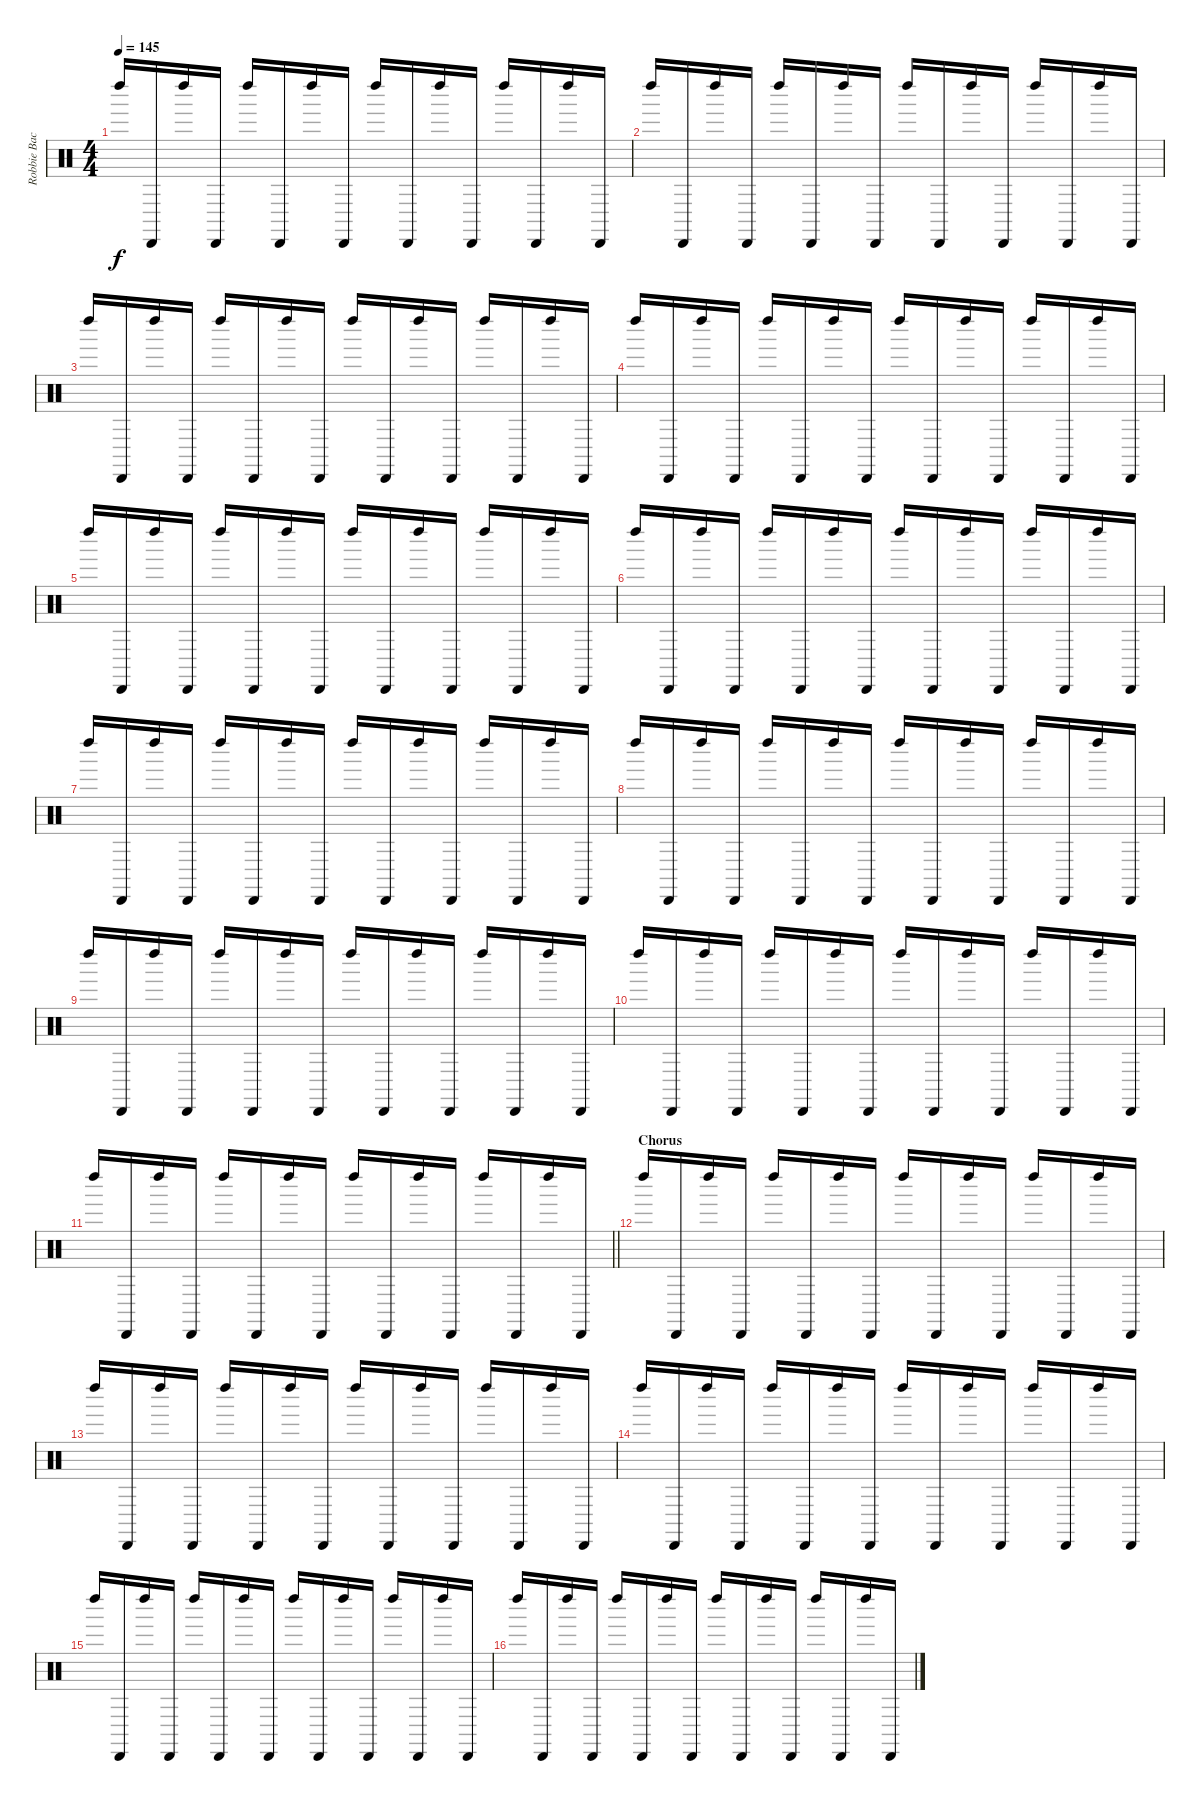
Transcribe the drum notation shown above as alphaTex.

\track ("Robbie Bachman 2" "Robbie Bac") {instrument percussion}
\staff {score}
\articulation defaults
\ts (4 4)
\tempo 145
\clef neutral
\ks c "Left Maraca (hit)".16{dy f} "Cabasa (hit)".16 "Left Maraca (hit)".16 "Cabasa (hit)".16 "Left Maraca (hit)".16 "Cabasa (hit)".16 "Left Maraca (hit)".16 "Cabasa (hit)".16 "Left Maraca (hit)".16 "Cabasa (hit)".16 "Left Maraca (hit)".16 "Cabasa (hit)".16 "Left Maraca (hit)".16 "Cabasa (hit)".16 "Left Maraca (hit)".16 "Cabasa (hit)".16
|
"Left Maraca (hit)".16 "Cabasa (hit)".16 "Left Maraca (hit)".16 "Cabasa (hit)".16 "Left Maraca (hit)".16 "Cabasa (hit)".16 "Left Maraca (hit)".16 "Cabasa (hit)".16 "Left Maraca (hit)".16 "Cabasa (hit)".16 "Left Maraca (hit)".16 "Cabasa (hit)".16 "Left Maraca (hit)".16 "Cabasa (hit)".16 "Left Maraca (hit)".16 "Cabasa (hit)".16 |
"Left Maraca (hit)".16 "Cabasa (hit)".16 "Left Maraca (hit)".16 "Cabasa (hit)".16 "Left Maraca (hit)".16 "Cabasa (hit)".16 "Left Maraca (hit)".16 "Cabasa (hit)".16 "Left Maraca (hit)".16 "Cabasa (hit)".16 "Left Maraca (hit)".16 "Cabasa (hit)".16 "Left Maraca (hit)".16 "Cabasa (hit)".16 "Left Maraca (hit)".16 "Cabasa (hit)".16 |
"Left Maraca (hit)".16 "Cabasa (hit)".16 "Left Maraca (hit)".16 "Cabasa (hit)".16 "Left Maraca (hit)".16 "Cabasa (hit)".16 "Left Maraca (hit)".16 "Cabasa (hit)".16 "Left Maraca (hit)".16 "Cabasa (hit)".16 "Left Maraca (hit)".16 "Cabasa (hit)".16 "Left Maraca (hit)".16 "Cabasa (hit)".16 "Left Maraca (hit)".16 "Cabasa (hit)".16 |
"Left Maraca (hit)".16 "Cabasa (hit)".16 "Left Maraca (hit)".16 "Cabasa (hit)".16 "Left Maraca (hit)".16 "Cabasa (hit)".16 "Left Maraca (hit)".16 "Cabasa (hit)".16 "Left Maraca (hit)".16 "Cabasa (hit)".16 "Left Maraca (hit)".16 "Cabasa (hit)".16 "Left Maraca (hit)".16 "Cabasa (hit)".16 "Left Maraca (hit)".16 "Cabasa (hit)".16 |
"Left Maraca (hit)".16 "Cabasa (hit)".16 "Left Maraca (hit)".16 "Cabasa (hit)".16 "Left Maraca (hit)".16 "Cabasa (hit)".16 "Left Maraca (hit)".16 "Cabasa (hit)".16 "Left Maraca (hit)".16 "Cabasa (hit)".16 "Left Maraca (hit)".16 "Cabasa (hit)".16 "Left Maraca (hit)".16 "Cabasa (hit)".16 "Left Maraca (hit)".16 "Cabasa (hit)".16 |
"Left Maraca (hit)".16 "Cabasa (hit)".16 "Left Maraca (hit)".16 "Cabasa (hit)".16 "Left Maraca (hit)".16 "Cabasa (hit)".16 "Left Maraca (hit)".16 "Cabasa (hit)".16 "Left Maraca (hit)".16 "Cabasa (hit)".16 "Left Maraca (hit)".16 "Cabasa (hit)".16 "Left Maraca (hit)".16 "Cabasa (hit)".16 "Left Maraca (hit)".16 "Cabasa (hit)".16 |
"Left Maraca (hit)".16 "Cabasa (hit)".16 "Left Maraca (hit)".16 "Cabasa (hit)".16 "Left Maraca (hit)".16 "Cabasa (hit)".16 "Left Maraca (hit)".16 "Cabasa (hit)".16 "Left Maraca (hit)".16 "Cabasa (hit)".16 "Left Maraca (hit)".16 "Cabasa (hit)".16 "Left Maraca (hit)".16 "Cabasa (hit)".16 "Left Maraca (hit)".16 "Cabasa (hit)".16 |
"Left Maraca (hit)".16 "Cabasa (hit)".16 "Left Maraca (hit)".16 "Cabasa (hit)".16 "Left Maraca (hit)".16 "Cabasa (hit)".16 "Left Maraca (hit)".16 "Cabasa (hit)".16 "Left Maraca (hit)".16 "Cabasa (hit)".16 "Left Maraca (hit)".16 "Cabasa (hit)".16 "Left Maraca (hit)".16 "Cabasa (hit)".16 "Left Maraca (hit)".16 "Cabasa (hit)".16 |
"Left Maraca (hit)".16 "Cabasa (hit)".16 "Left Maraca (hit)".16 "Cabasa (hit)".16 "Left Maraca (hit)".16 "Cabasa (hit)".16 "Left Maraca (hit)".16 "Cabasa (hit)".16 "Left Maraca (hit)".16 "Cabasa (hit)".16 "Left Maraca (hit)".16 "Cabasa (hit)".16 "Left Maraca (hit)".16 "Cabasa (hit)".16 "Left Maraca (hit)".16 "Cabasa (hit)".16 |
\barLineRight lightlight "Left Maraca (hit)".16 "Cabasa (hit)".16 "Left Maraca (hit)".16 "Cabasa (hit)".16 "Left Maraca (hit)".16 "Cabasa (hit)".16 "Left Maraca (hit)".16 "Cabasa (hit)".16 "Left Maraca (hit)".16 "Cabasa (hit)".16 "Left Maraca (hit)".16 "Cabasa (hit)".16 "Left Maraca (hit)".16 "Cabasa (hit)".16 "Left Maraca (hit)".16 "Cabasa (hit)".16
|
\section ("" "Chorus")
"Left Maraca (hit)".16 "Cabasa (hit)".16 "Left Maraca (hit)".16 "Cabasa (hit)".16 "Left Maraca (hit)".16 "Cabasa (hit)".16 "Left Maraca (hit)".16 "Cabasa (hit)".16 "Left Maraca (hit)".16 "Cabasa (hit)".16 "Left Maraca (hit)".16 "Cabasa (hit)".16 "Left Maraca (hit)".16 "Cabasa (hit)".16 "Left Maraca (hit)".16 "Cabasa (hit)".16 |
"Left Maraca (hit)".16 "Cabasa (hit)".16 "Left Maraca (hit)".16 "Cabasa (hit)".16 "Left Maraca (hit)".16 "Cabasa (hit)".16 "Left Maraca (hit)".16 "Cabasa (hit)".16 "Left Maraca (hit)".16 "Cabasa (hit)".16 "Left Maraca (hit)".16 "Cabasa (hit)".16 "Left Maraca (hit)".16 "Cabasa (hit)".16 "Left Maraca (hit)".16 "Cabasa (hit)".16 |
"Left Maraca (hit)".16 "Cabasa (hit)".16 "Left Maraca (hit)".16 "Cabasa (hit)".16 "Left Maraca (hit)".16 "Cabasa (hit)".16 "Left Maraca (hit)".16 "Cabasa (hit)".16 "Left Maraca (hit)".16 "Cabasa (hit)".16 "Left Maraca (hit)".16 "Cabasa (hit)".16 "Left Maraca (hit)".16 "Cabasa (hit)".16 "Left Maraca (hit)".16 "Cabasa (hit)".16 |
"Left Maraca (hit)".16 "Cabasa (hit)".16 "Left Maraca (hit)".16 "Cabasa (hit)".16 "Left Maraca (hit)".16 "Cabasa (hit)".16 "Left Maraca (hit)".16 "Cabasa (hit)".16 "Left Maraca (hit)".16 "Cabasa (hit)".16 "Left Maraca (hit)".16 "Cabasa (hit)".16 "Left Maraca (hit)".16 "Cabasa (hit)".16 "Left Maraca (hit)".16 "Cabasa (hit)".16 |
"Left Maraca (hit)".16 "Cabasa (hit)".16 "Left Maraca (hit)".16 "Cabasa (hit)".16 "Left Maraca (hit)".16 "Cabasa (hit)".16 "Left Maraca (hit)".16 "Cabasa (hit)".16 "Left Maraca (hit)".16 "Cabasa (hit)".16 "Left Maraca (hit)".16 "Cabasa (hit)".16 "Left Maraca (hit)".16 "Cabasa (hit)".16 "Left Maraca (hit)".16 "Cabasa (hit)".16
